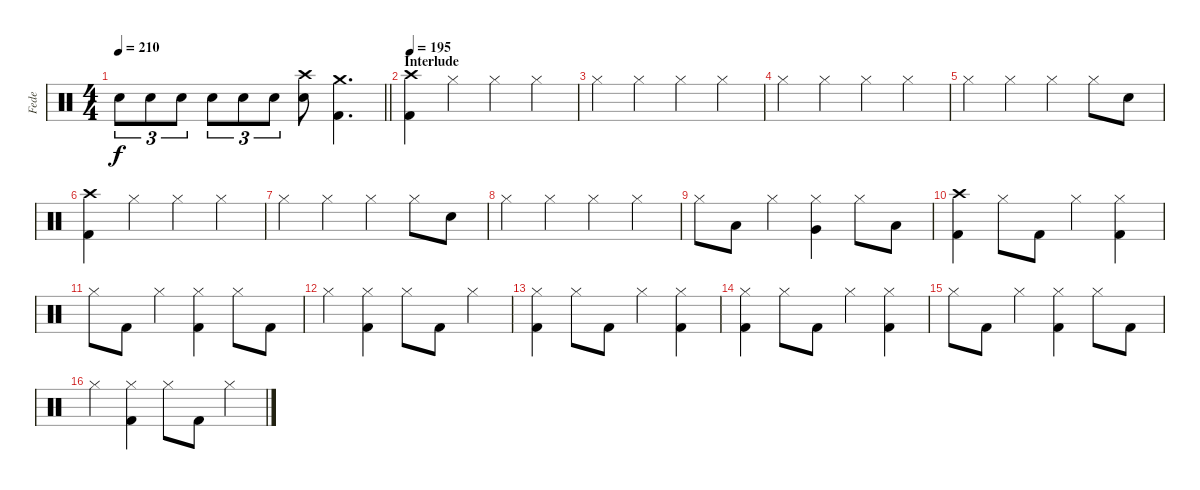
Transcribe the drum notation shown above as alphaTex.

\track ("Fede" "Fede") {instrument percussion}
\staff {score}
\articulation defaults
\ts (4 4)
\tempo 210
\clef neutral
\barLineRight lightlight
\ks c "Snare (hit) 2".8{tu (3 2) dy f} "Snare (hit) 2".8{tu (3 2)} "Snare (hit) 2".8{tu (3 2)} "Snare (hit) 2".8{tu (3 2)} "Snare (hit) 2".8{tu (3 2)} "Snare (hit) 2".8{tu (3 2)}
("Crash high (hit)" "Snare (hit) 2").8 ("Crash medium (hit)" "Kick (hit) 2").4{d} |
\section ("" "Interlude")
\tempo 195
("Crash high (hit)" "Kick (hit) 2").4 "Hi-Hat (closed)".4 "Hi-Hat (closed)".4 "Hi-Hat (closed)".4 |
"Hi-Hat (closed)".4 "Hi-Hat (closed)".4 "Hi-Hat (closed)".4 "Hi-Hat (closed)".4 |
"Hi-Hat (closed)".4 "Hi-Hat (closed)".4 "Hi-Hat (closed)".4 "Hi-Hat (closed)".4 |
"Hi-Hat (closed)".4 "Hi-Hat (closed)".4 "Hi-Hat (closed)".4 "Hi-Hat (closed)".8 "Snare (hit) 2".8 |
("Crash high (hit)" "Kick (hit) 2").4 "Hi-Hat (closed)".4 "Hi-Hat (closed)".4 "Hi-Hat (closed)".4 |
"Hi-Hat (closed)".4 "Hi-Hat (closed)".4 "Hi-Hat (closed)".4 "Hi-Hat (closed)".8 "Snare (hit) 2".8 |
"Hi-Hat (closed)".4 "Hi-Hat (closed)".4 "Hi-Hat (closed)".4 "Hi-Hat (closed)".4 |
"Hi-Hat (closed)".8 "Low Tom (hit)".8 "Hi-Hat (closed)".4 ("Hi-Hat (closed)" "Very Low Tom (hit)").4 "Hi-Hat (closed)".8 "Low Floor Tom (hit)".8 |
("Crash high (hit)" "Kick (hit) 2").4 "Hi-Hat (closed)".8 "Kick (hit) 2".8 "Hi-Hat (closed)".4 ("Hi-Hat (closed)" "Kick (hit) 2").4 |
"Hi-Hat (closed)".8 "Kick (hit) 2".8 "Hi-Hat (closed)".4 ("Hi-Hat (closed)" "Kick (hit) 2").4 "Hi-Hat (closed)".8 "Kick (hit) 2".8 |
"Hi-Hat (closed)".4 ("Hi-Hat (closed)" "Kick (hit) 2").4 "Hi-Hat (closed)".8 "Kick (hit) 2".8 "Hi-Hat (closed)".4 |
("Hi-Hat (closed)" "Kick (hit) 2").4 "Hi-Hat (closed)".8 "Kick (hit) 2".8 "Hi-Hat (closed)".4 ("Hi-Hat (closed)" "Kick (hit) 2").4 |
("Hi-Hat (closed)" "Kick (hit) 2").4 "Hi-Hat (closed)".8 "Kick (hit) 2".8 "Hi-Hat (closed)".4 ("Hi-Hat (closed)" "Kick (hit) 2").4 |
"Hi-Hat (closed)".8 "Kick (hit) 2".8 "Hi-Hat (closed)".4 ("Hi-Hat (closed)" "Kick (hit) 2").4 "Hi-Hat (closed)".8 "Kick (hit) 2".8 |
"Hi-Hat (closed)".4 ("Hi-Hat (closed)" "Kick (hit) 2").4 "Hi-Hat (closed)".8 "Kick (hit) 2".8 "Hi-Hat (closed)".4
